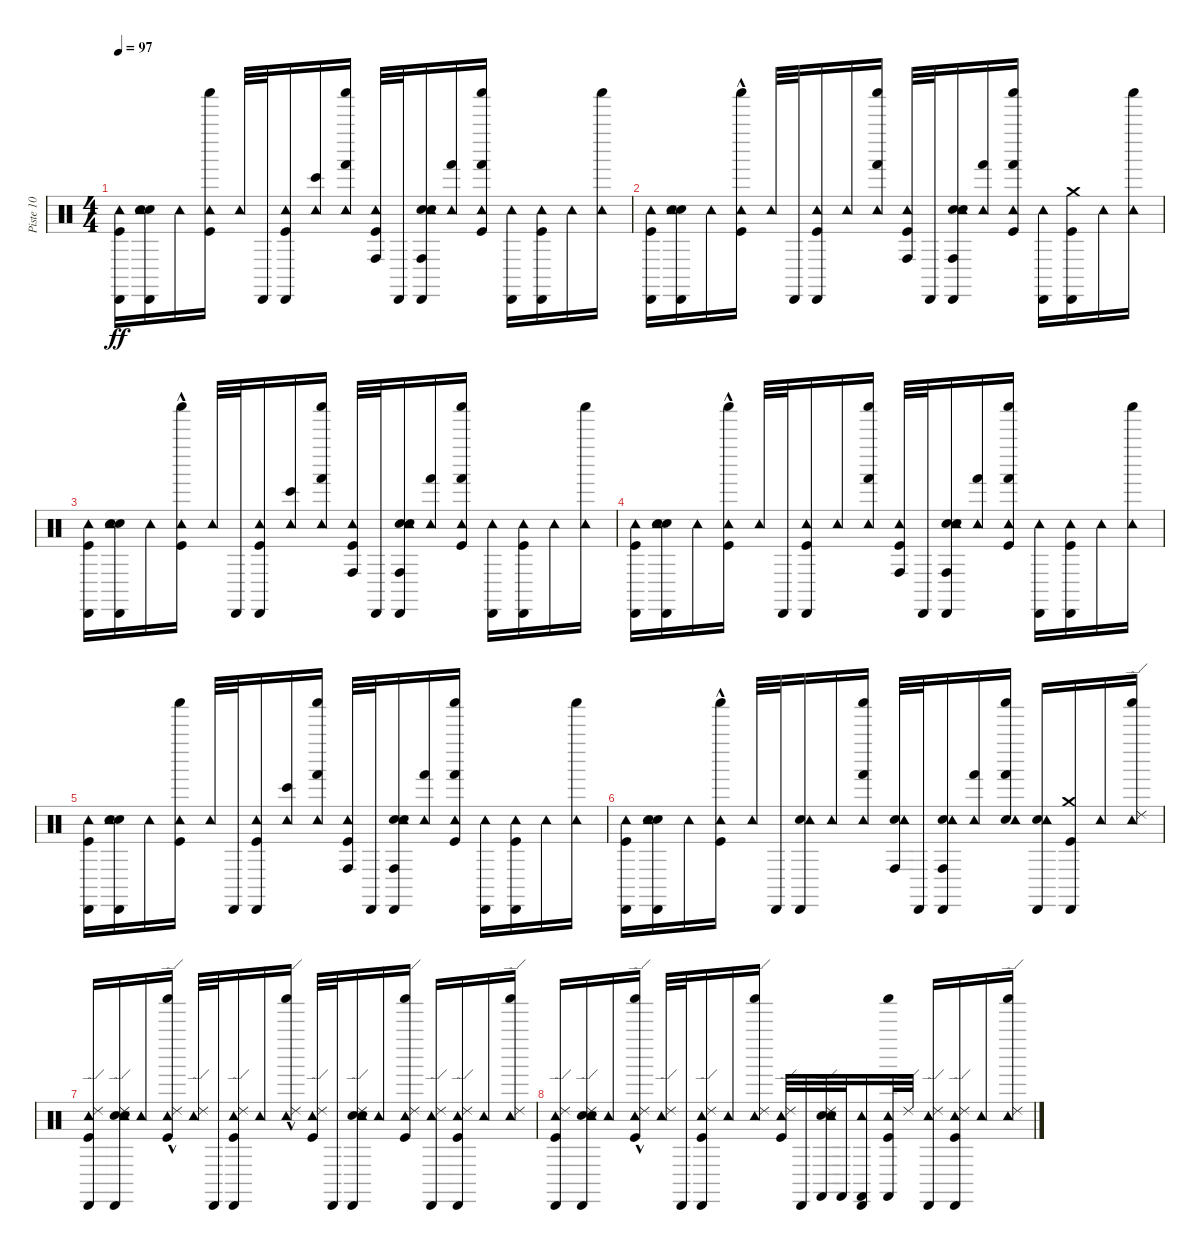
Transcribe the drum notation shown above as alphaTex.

\track ("Piste 10" "Piste 10") {instrument percussion}
\staff {score}
\articulation defaults
\ts (4 4)
\tempo 97
\clef neutral
\ks c
("Cabasa (hit)" "Kick (hit)" "Tambourine (hit)").16{dy ff} ("Cabasa (hit)" "Hand Clap (hit)" "Electric Snare (hit)" "Tambourine (hit)").16 "Tambourine (hit)".16 ("Shaker (hit)" "Kick (hit)" "Tambourine (hit)").16 "Tambourine (hit)".32 "Cabasa (hit)".32 ("Cabasa (hit)" "Kick (hit)" "Tambourine (hit)").16 ("Bongo High (hit)" "Tambourine (hit)").16 ("Hand (hit)" "Shaker (hit)" "Tambourine (hit)").16 ("Conga high (hit)" "Kick (hit)" "Tambourine (hit)").32 "Cabasa (hit)".32 ("Conga high (hit)" "Cabasa (hit)" "Hand Clap (hit)" "Electric Snare (hit)" "Tambourine (hit)").16 ("Hand (hit)" "Tambourine (hit)").16 ("Hand (hit)" "Shaker (hit)" "Kick (hit)" "Tambourine (hit)").16 ("Cabasa (hit)" "Tambourine (hit)").16 ("Cabasa (hit)" "Kick (hit)" "Tambourine (hit)").16 "Tambourine (hit)".16 ("Shaker (hit)" "Tambourine (hit)").16 |
("Cabasa (hit)" "Kick (hit)" "Tambourine (hit)").16 ("Cabasa (hit)" "Hand Clap (hit)" "Electric Snare (hit)" "Tambourine (hit)").16 "Tambourine (hit)".16 ("Shaker (hit)"{hac} "Kick (hit)" "Tambourine (hit)").16 "Tambourine (hit)".32 "Cabasa (hit)".32 ("Cabasa (hit)" "Kick (hit)" "Tambourine (hit)").16 "Tambourine (hit)".16 ("Hand (hit)" "Shaker (hit)" "Tambourine (hit)").16 ("Conga high (hit)" "Kick (hit)" "Tambourine (hit)").32 "Cabasa (hit)".32 ("Conga high (hit)" "Cabasa (hit)" "Hand Clap (hit)" "Electric Snare (hit)" "Tambourine (hit)").16 ("Hand (hit)" "Tambourine (hit)").16 ("Hand (hit)" "Shaker (hit)" "Kick (hit)" "Tambourine (hit)").16 ("Cabasa (hit)" "Tambourine (hit)").16 ("Cabasa (hit)" "Kick (hit)" "Crash medium (hit)").16 "Tambourine (hit)".16 ("Shaker (hit)" "Tambourine (hit)").16 |
("Cabasa (hit)" "Kick (hit)" "Tambourine (hit)").16 ("Cabasa (hit)" "Hand Clap (hit)" "Electric Snare (hit)" "Tambourine (hit)").16 "Tambourine (hit)".16 ("Shaker (hit)"{hac} "Kick (hit)" "Tambourine (hit)").16 "Tambourine (hit)".32 "Cabasa (hit)".32 ("Cabasa (hit)" "Kick (hit)" "Tambourine (hit)").16 ("Bongo High (hit)" "Tambourine (hit)").16 ("Hand (hit)" "Shaker (hit)" "Tambourine (hit)").16 ("Conga high (hit)" "Kick (hit)" "Tambourine (hit)").32 "Cabasa (hit)".32 ("Conga high (hit)" "Cabasa (hit)" "Hand Clap (hit)" "Electric Snare (hit)" "Tambourine (hit)").16 ("Hand (hit)" "Tambourine (hit)").16 ("Hand (hit)" "Shaker (hit)" "Kick (hit)" "Tambourine (hit)").16 ("Cabasa (hit)" "Tambourine (hit)").16 ("Cabasa (hit)" "Kick (hit)" "Tambourine (hit)").16 "Tambourine (hit)".16 ("Shaker (hit)" "Tambourine (hit)").16 |
("Cabasa (hit)" "Kick (hit)" "Tambourine (hit)").16 ("Cabasa (hit)" "Hand Clap (hit)" "Electric Snare (hit)" "Tambourine (hit)").16 "Tambourine (hit)".16 ("Shaker (hit)"{hac} "Kick (hit)" "Tambourine (hit)").16 "Tambourine (hit)".32 "Cabasa (hit)".32 ("Cabasa (hit)" "Kick (hit)" "Tambourine (hit)").16 "Tambourine (hit)".16 ("Hand (hit)" "Shaker (hit)" "Tambourine (hit)").16 ("Conga high (hit)" "Kick (hit)" "Tambourine (hit)").32 "Cabasa (hit)".32 ("Conga high (hit)" "Cabasa (hit)" "Hand Clap (hit)" "Electric Snare (hit)" "Tambourine (hit)").16 ("Hand (hit)" "Tambourine (hit)").16 ("Hand (hit)" "Shaker (hit)" "Kick (hit)" "Tambourine (hit)").16 ("Cabasa (hit)" "Tambourine (hit)").16 ("Cabasa (hit)" "Kick (hit)" "Tambourine (hit)").16 "Tambourine (hit)".16 ("Shaker (hit)" "Tambourine (hit)").16 |
("Cabasa (hit)" "Kick (hit)" "Tambourine (hit)").16 ("Cabasa (hit)" "Hand Clap (hit)" "Electric Snare (hit)" "Tambourine (hit)").16 "Tambourine (hit)".16 ("Shaker (hit)" "Kick (hit)" "Tambourine (hit)").16 "Tambourine (hit)".32 "Cabasa (hit)".32 ("Cabasa (hit)" "Kick (hit)" "Tambourine (hit)").16 ("Bongo High (hit)" "Tambourine (hit)").16 ("Hand (hit)" "Shaker (hit)" "Tambourine (hit)").16 ("Conga high (hit)" "Kick (hit)" "Tambourine (hit)").32 "Cabasa (hit)".32 ("Conga high (hit)" "Cabasa (hit)" "Hand Clap (hit)" "Electric Snare (hit)" "Tambourine (hit)").16 ("Hand (hit)" "Tambourine (hit)").16 ("Hand (hit)" "Shaker (hit)" "Kick (hit)" "Tambourine (hit)").16 ("Cabasa (hit)" "Tambourine (hit)").16 ("Cabasa (hit)" "Kick (hit)" "Tambourine (hit)").16 "Tambourine (hit)".16 ("Shaker (hit)" "Tambourine (hit)").16 |
("Cabasa (hit)" "Kick (hit)" "Tambourine (hit)").16 ("Cabasa (hit)" "Hand Clap (hit)" "Electric Snare (hit)" "Tambourine (hit)").16 "Tambourine (hit)".16 ("Shaker (hit)"{hac} "Kick (hit)" "Tambourine (hit)").16 "Tambourine (hit)".32 "Cabasa (hit)".32 ("Cabasa (hit)" "Snare (hit) 2" "Tambourine (hit)").16 "Tambourine (hit)".16 ("Hand (hit)" "Shaker (hit)" "Tambourine (hit)").16 ("Conga high (hit)" "Snare (hit) 2" "Tambourine (hit)").32 "Cabasa (hit)".32 ("Conga high (hit)" "Cabasa (hit)" "Snare (hit) 2" "Tambourine (hit)").16 ("Hand (hit)" "Tambourine (hit)").16 ("Hand (hit)" "Shaker (hit)" "Snare (hit) 2" "Tambourine (hit)").16 ("Cabasa (hit)" "Snare (hit) 2" "Tambourine (hit)").16 ("Cabasa (hit)" "Kick (hit)" "Crash medium (hit)").16 "Tambourine (hit)".16 ("Shaker (hit)" "Tambourine (hit)" "Ride (edge) 2").16 |
("Cabasa (hit)" "Kick (hit)" "Tambourine (hit)" "Ride (edge) 2").16 ("Cabasa (hit)" "Hand Clap (hit)" "Electric Snare (hit)" "Tambourine (hit)" "Ride (edge) 2").16 "Tambourine (hit)".16 ("Shaker (hit)"{hac} "Kick (hit)" "Tambourine (hit)" "Ride (edge) 2").16 ("Tambourine (hit)" "Ride (edge) 2").32 "Cabasa (hit)".32 ("Cabasa (hit)" "Kick (hit)" "Tambourine (hit)" "Ride (edge) 2").16 "Tambourine (hit)".16 ("Shaker (hit)"{hac} "Tambourine (hit)" "Ride (edge) 2").16 ("Kick (hit)" "Tambourine (hit)" "Ride (edge) 2").32 "Cabasa (hit)".32 ("Cabasa (hit)" "Hand Clap (hit)" "Electric Snare (hit)" "Tambourine (hit)" "Ride (edge) 2").16 "Tambourine (hit)".16 ("Shaker (hit)" "Kick (hit)" "Tambourine (hit)" "Ride (edge) 2").16 ("Cabasa (hit)" "Tambourine (hit)" "Ride (edge) 2").16 ("Cabasa (hit)" "Kick (hit)" "Tambourine (hit)" "Ride (edge) 2").16 "Tambourine (hit)".16 ("Shaker (hit)" "Tambourine (hit)" "Ride (edge) 2").16 |
("Cabasa (hit)" "Kick (hit)" "Tambourine (hit)" "Ride (edge) 2").16 ("Cabasa (hit)" "Hand Clap (hit)" "Electric Snare (hit)" "Tambourine (hit)" "Ride (edge) 2").16 "Tambourine (hit)".16 ("Shaker (hit)"{hac} "Kick (hit)" "Tambourine (hit)" "Ride (edge) 2").16 ("Tambourine (hit)" "Ride (edge) 2").32 "Cabasa (hit)".32 ("Cabasa (hit)" "Kick (hit)" "Tambourine (hit)" "Ride (edge) 2").16 "Tambourine (hit)".16 ("Shaker (hit)" "Tambourine (hit)" "Ride (edge) 2").16 ("Kick (hit)" "Tambourine (hit)" "Ride (edge) 2").32 "Cabasa (hit)".32 ("Castanets (hit)" "Hand Clap (hit)" "Electric Snare (hit)" "Tambourine (hit)" "Ride (edge) 2").32 "Castanets (hit)".32 ("Cabasa (hit)" "Castanets (hit)" "Tambourine (hit)").16 ("Shaker (hit)" "Castanets (hit)" "Kick (hit)" "Tambourine (hit)").32 "Ride (edge) 2".32 ("Cabasa (hit)" "Tambourine (hit)" "Ride (edge) 2").16 ("Cabasa (hit)" "Kick (hit)" "Tambourine (hit)" "Ride (edge) 2").16 "Tambourine (hit)".16 ("Shaker (hit)" "Tambourine (hit)" "Ride (edge) 2").16
